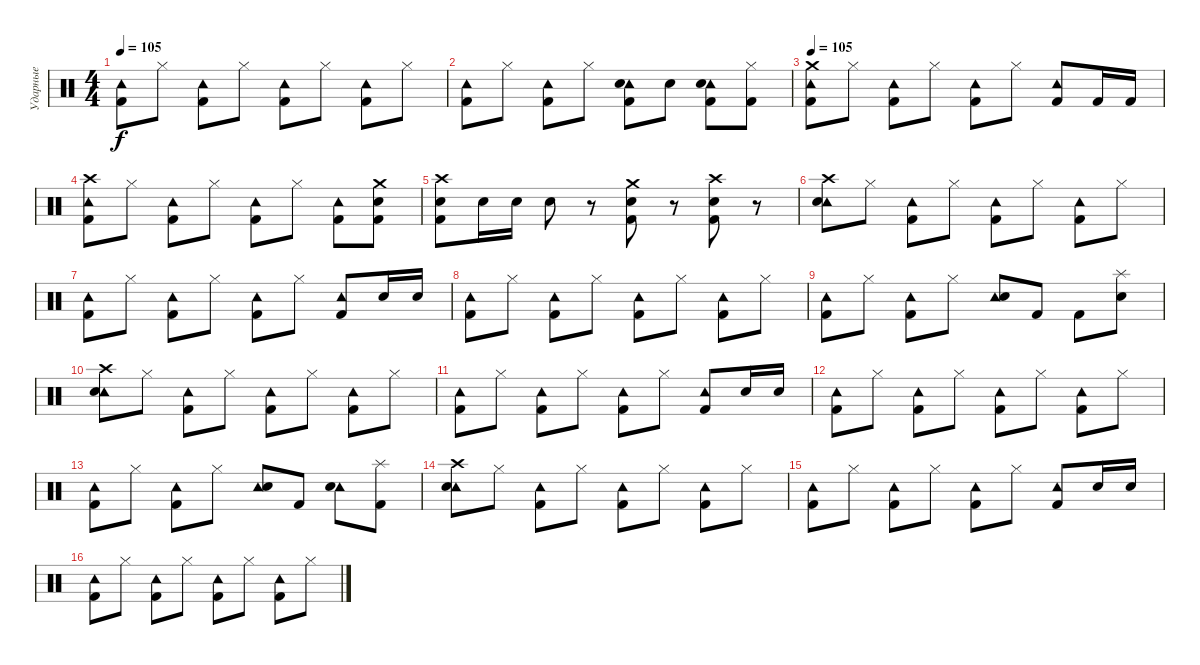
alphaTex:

\track ("Ударные" "Ударные") {instrument percussion}
\staff {score}
\articulation defaults
\ts (4 4)
\tempo 105
\clef neutral
\ks c
("Tambourine (hit)" "Kick (hit) 2").8{dy f} "Hi-Hat (closed)".8 ("Tambourine (hit)" "Kick (hit) 2").8 "Hi-Hat (closed)".8 ("Tambourine (hit)" "Kick (hit) 2").8 "Hi-Hat (closed)".8 ("Tambourine (hit)" "Kick (hit) 2").8 "Hi-Hat (closed)".8 |
("Tambourine (hit)" "Kick (hit) 2").8 "Hi-Hat (closed)".8 ("Tambourine (hit)" "Kick (hit) 2").8 "Hi-Hat (closed)".8 ("Tambourine (hit)" "Snare (hit) 2" "Kick (hit) 2").8 "Snare (hit) 2".8 ("Tambourine (hit)" "Electric Snare (hit)" "Kick (hit) 2").8 ("Kick (hit) 2" "Hi-Hat (closed)").8 |
\tempo 105
("Tambourine (hit)" "Crash medium (hit)" "Kick (hit) 2").8 "Hi-Hat (closed)".8 ("Tambourine (hit)" "Kick (hit) 2").8 "Hi-Hat (closed)".8 ("Tambourine (hit)" "Kick (hit) 2").8 "Hi-Hat (closed)".8 ("Tambourine (hit)" "Kick (hit) 2").8 "Kick (hit) 2".16 "Kick (hit) 2".16 |
("Tambourine (hit)" "Crash high (hit)" "Kick (hit) 2").8 "Hi-Hat (closed)".8 ("Tambourine (hit)" "Kick (hit) 2").8 "Hi-Hat (closed)".8 ("Tambourine (hit)" "Kick (hit) 2").8 "Hi-Hat (closed)".8 ("Tambourine (hit)" "Kick (hit) 2").8 ("Crash medium (hit)" "Kick (hit) 2" "Snare (hit) 2").8 |
("Crash high (hit)" "Snare (hit) 2" "Kick (hit) 2").8 "Electric Snare (hit)".16 "Electric Snare (hit)".16 "Electric Snare (hit)".8 r.8 ("Crash medium (hit)" "Snare (hit) 2" "Kick (hit) 2").8 r.8 ("Crash high (hit)" "Snare (hit) 2" "Kick (hit) 2").8 r.8 |
("Tambourine (hit)" "Crash high (hit)" "Snare (hit) 2").8 "Hi-Hat (closed)".8 ("Tambourine (hit)" "Kick (hit) 2").8 "Hi-Hat (closed)".8 ("Tambourine (hit)" "Kick (hit) 2").8 "Hi-Hat (closed)".8 ("Tambourine (hit)" "Kick (hit) 2").8 "Hi-Hat (closed)".8 |
("Tambourine (hit)" "Kick (hit) 2").8 "Hi-Hat (closed)".8 ("Tambourine (hit)" "Kick (hit) 2").8 "Hi-Hat (closed)".8 ("Tambourine (hit)" "Kick (hit) 2").8 "Hi-Hat (closed)".8 ("Tambourine (hit)" "Kick (hit) 2").8 "Electric Snare (hit)".16 "Electric Snare (hit)".16 |
("Tambourine (hit)" "Kick (hit) 2").8 "Hi-Hat (closed)".8 ("Tambourine (hit)" "Kick (hit) 2").8 "Hi-Hat (closed)".8 ("Tambourine (hit)" "Kick (hit) 2").8 "Hi-Hat (closed)".8 ("Tambourine (hit)" "Kick (hit) 2").8 "Hi-Hat (closed)".8 |
("Tambourine (hit)" "Kick (hit) 2").8 "Hi-Hat (closed)".8 ("Tambourine (hit)" "Kick (hit) 2").8 "Hi-Hat (closed)".8 ("Tambourine (hit)" "Electric Snare (hit)").8 "Kick (hit) 2".8 "Kick (hit) 2".8 ("Splash (hit)" "Electric Snare (hit)").8 |
("Tambourine (hit)" "Crash high (hit)" "Snare (hit) 2").8 "Hi-Hat (closed)".8 ("Tambourine (hit)" "Kick (hit) 2").8 "Hi-Hat (closed)".8 ("Tambourine (hit)" "Kick (hit) 2").8 "Hi-Hat (closed)".8 ("Tambourine (hit)" "Kick (hit) 2").8 "Hi-Hat (closed)".8 |
("Tambourine (hit)" "Kick (hit) 2").8 "Hi-Hat (closed)".8 ("Tambourine (hit)" "Kick (hit) 2").8 "Hi-Hat (closed)".8 ("Tambourine (hit)" "Kick (hit) 2").8 "Hi-Hat (closed)".8 ("Tambourine (hit)" "Kick (hit) 2").8 "Electric Snare (hit)".16 "Electric Snare (hit)".16 |
("Tambourine (hit)" "Kick (hit) 2").8 "Hi-Hat (closed)".8 ("Tambourine (hit)" "Kick (hit) 2").8 "Hi-Hat (closed)".8 ("Tambourine (hit)" "Kick (hit) 2").8 "Hi-Hat (closed)".8 ("Tambourine (hit)" "Kick (hit) 2").8 "Hi-Hat (closed)".8 |
("Tambourine (hit)" "Kick (hit) 2").8 "Hi-Hat (closed)".8 ("Tambourine (hit)" "Kick (hit) 2").8 "Hi-Hat (closed)".8 ("Tambourine (hit)" "Electric Snare (hit)").8 "Kick (hit) 2".8 ("Tambourine (hit)" "Electric Snare (hit)").8 ("Splash (hit)" "Kick (hit) 2").8 |
("Tambourine (hit)" "Crash high (hit)" "Snare (hit) 2").8 "Hi-Hat (closed)".8 ("Tambourine (hit)" "Kick (hit) 2").8 "Hi-Hat (closed)".8 ("Tambourine (hit)" "Kick (hit) 2").8 "Hi-Hat (closed)".8 ("Tambourine (hit)" "Kick (hit) 2").8 "Hi-Hat (closed)".8 |
("Tambourine (hit)" "Kick (hit) 2").8 "Hi-Hat (closed)".8 ("Tambourine (hit)" "Kick (hit) 2").8 "Hi-Hat (closed)".8 ("Tambourine (hit)" "Kick (hit) 2").8 "Hi-Hat (closed)".8 ("Tambourine (hit)" "Kick (hit) 2").8 "Electric Snare (hit)".16 "Electric Snare (hit)".16 |
("Tambourine (hit)" "Kick (hit) 2").8 "Hi-Hat (closed)".8 ("Tambourine (hit)" "Kick (hit) 2").8 "Hi-Hat (closed)".8 ("Tambourine (hit)" "Kick (hit) 2").8 "Hi-Hat (closed)".8 ("Tambourine (hit)" "Kick (hit) 2").8 "Hi-Hat (closed)".8
